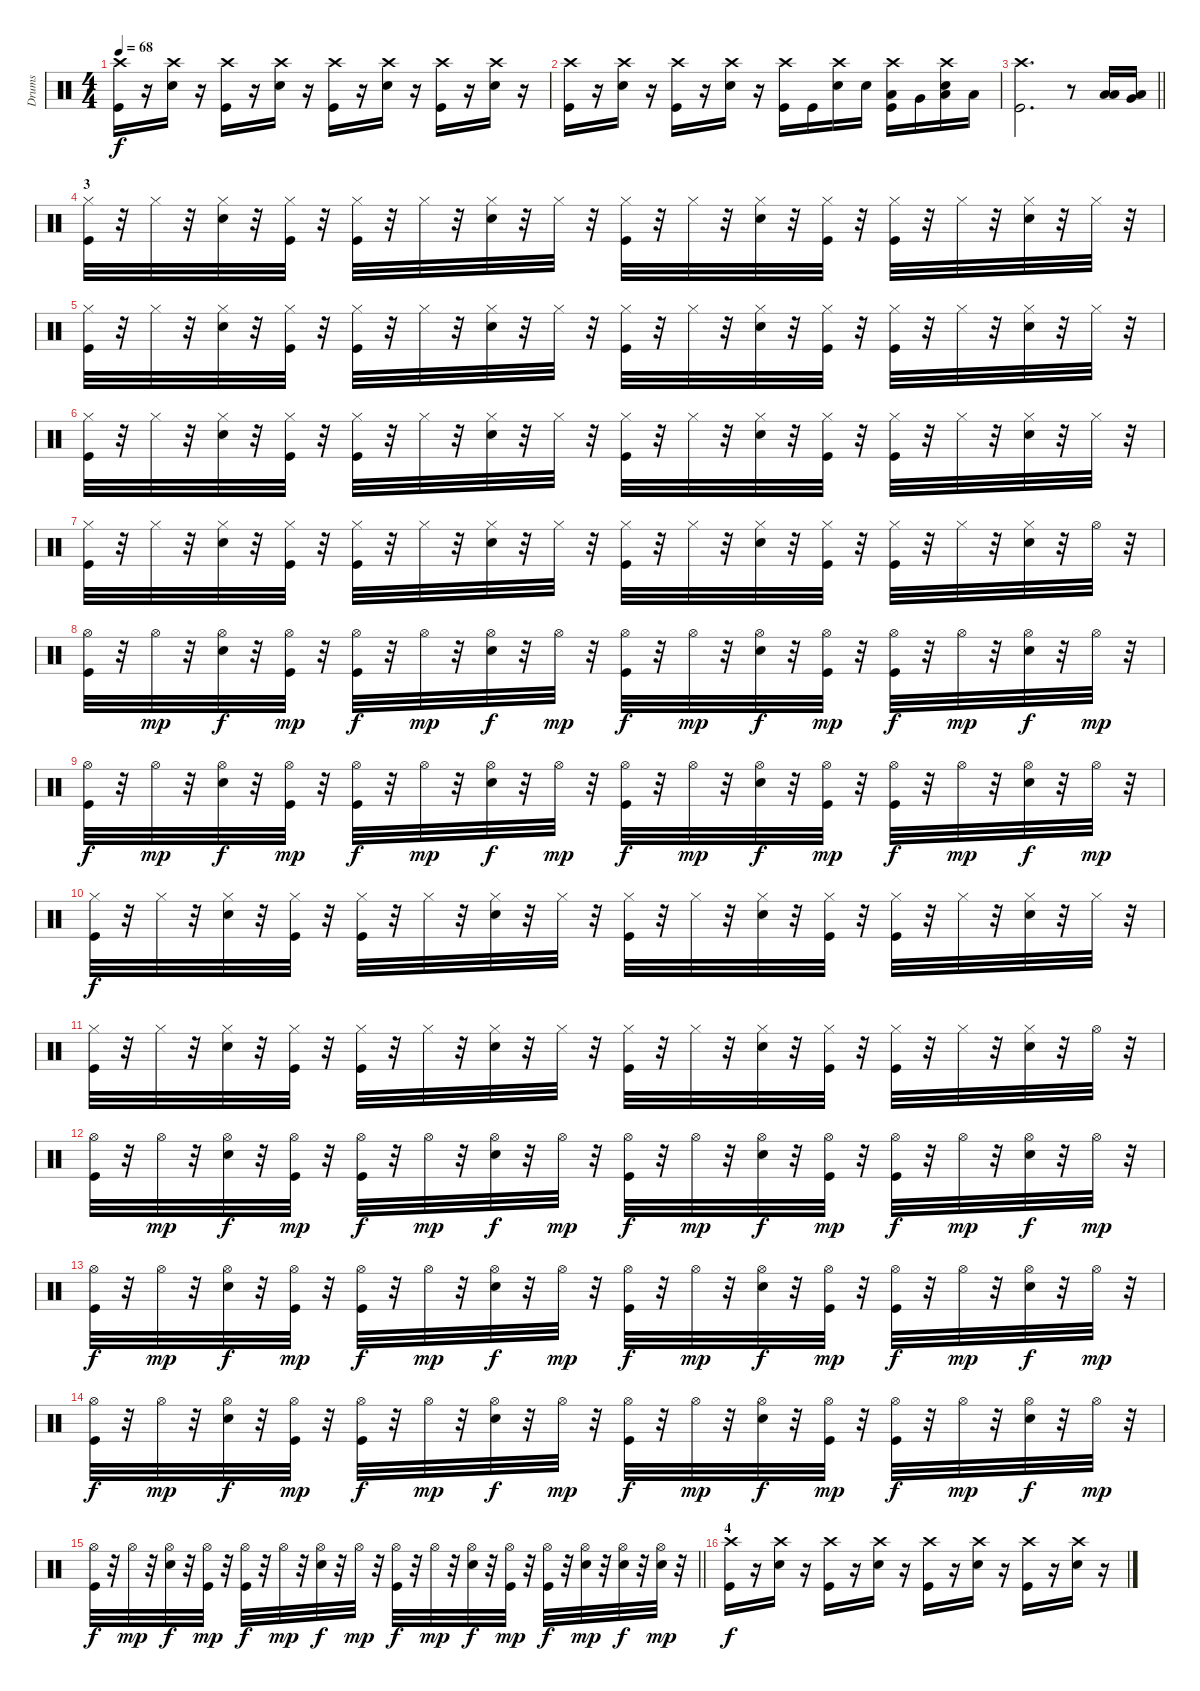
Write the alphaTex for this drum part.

\track ("Drums" "Drums") {instrument percussion}
\staff {score}
\articulation defaults
\ts (4 4)
\tempo 68
\clef neutral
\ks c
("Crash high (hit)" "Kick (hit)").16{dy f} r.16 ("Crash high (hit)" "Snare (hit) 2").16 r.16 ("Crash high (hit)" "Kick (hit)").16 r.16 ("Crash high (hit)" "Snare (hit) 2").16 r.16 ("Crash high (hit)" "Kick (hit)").16 r.16 ("Crash high (hit)" "Snare (hit) 2").16 r.16 ("Crash high (hit)" "Kick (hit)").16 r.16 ("Crash high (hit)" "Snare (hit) 2").16 r.16 |
("Crash high (hit)" "Kick (hit)").16 r.16 ("Crash high (hit)" "Snare (hit) 2").16 r.16 ("Crash high (hit)" "Kick (hit)").16 r.16 ("Crash high (hit)" "Snare (hit) 2").16 r.16 ("Crash high (hit)" "Kick (hit)").16 "Kick (hit)".16 ("Crash high (hit)" "Snare (hit) 2").16 "Snare (hit) 2".16 ("Crash high (hit)" "Low Tom (hit)" "Kick (hit)").16 "Very Low Tom (hit)".16 ("Crash high (hit)" "Low Floor Tom (hit)" "Snare (hit) 2").16 "Low Floor Tom (hit)".16 |
\barLineRight lightlight
("Crash high (hit)" "Kick (hit)").2{d} r.8 ("Low Floor Tom (hit)" "Low Tom (hit)").16 ("Low Floor Tom (hit)" "Very Low Tom (hit)").16 |
\section ("" "3")
("Hi-Hat (closed)" "Kick (hit)").32 r.32 "Hi-Hat (closed)".32 r.32 ("Hi-Hat (closed)" "Snare (hit) 2").32 r.32 ("Hi-Hat (closed)" "Kick (hit)").32 r.32 ("Hi-Hat (closed)" "Kick (hit)").32 r.32 "Hi-Hat (closed)".32 r.32 ("Hi-Hat (closed)" "Snare (hit) 2").32 r.32 "Hi-Hat (closed)".32 r.32 ("Hi-Hat (closed)" "Kick (hit)").32 r.32 "Hi-Hat (closed)".32 r.32 ("Hi-Hat (closed)" "Snare (hit) 2").32 r.32 ("Hi-Hat (closed)" "Kick (hit)").32 r.32 ("Hi-Hat (closed)" "Kick (hit)").32 r.32 "Hi-Hat (closed)".32 r.32 ("Hi-Hat (closed)" "Snare (hit) 2").32 r.32 "Hi-Hat (closed)".32 r.32 |
("Hi-Hat (closed)" "Kick (hit)").32 r.32 "Hi-Hat (closed)".32 r.32 ("Hi-Hat (closed)" "Snare (hit) 2").32 r.32 ("Hi-Hat (closed)" "Kick (hit)").32 r.32 ("Hi-Hat (closed)" "Kick (hit)").32 r.32 "Hi-Hat (closed)".32 r.32 ("Hi-Hat (closed)" "Snare (hit) 2").32 r.32 "Hi-Hat (closed)".32 r.32 ("Hi-Hat (closed)" "Kick (hit)").32 r.32 "Hi-Hat (closed)".32 r.32 ("Hi-Hat (closed)" "Snare (hit) 2").32 r.32 ("Hi-Hat (closed)" "Kick (hit)").32 r.32 ("Hi-Hat (closed)" "Kick (hit)").32 r.32 "Hi-Hat (closed)".32 r.32 ("Hi-Hat (closed)" "Snare (hit) 2").32 r.32 "Hi-Hat (closed)".32 r.32 |
("Hi-Hat (closed)" "Kick (hit)").32 r.32 "Hi-Hat (closed)".32 r.32 ("Hi-Hat (closed)" "Snare (hit) 2").32 r.32 ("Hi-Hat (closed)" "Kick (hit)").32 r.32 ("Hi-Hat (closed)" "Kick (hit)").32 r.32 "Hi-Hat (closed)".32 r.32 ("Hi-Hat (closed)" "Snare (hit) 2").32 r.32 "Hi-Hat (closed)".32 r.32 ("Hi-Hat (closed)" "Kick (hit)").32 r.32 "Hi-Hat (closed)".32 r.32 ("Hi-Hat (closed)" "Snare (hit) 2").32 r.32 ("Hi-Hat (closed)" "Kick (hit)").32 r.32 ("Hi-Hat (closed)" "Kick (hit)").32 r.32 "Hi-Hat (closed)".32 r.32 ("Hi-Hat (closed)" "Snare (hit) 2").32 r.32 "Hi-Hat (closed)".32 r.32 |
("Hi-Hat (closed)" "Kick (hit)").32 r.32 "Hi-Hat (closed)".32 r.32 ("Hi-Hat (closed)" "Snare (hit) 2").32 r.32 ("Hi-Hat (closed)" "Kick (hit)").32 r.32 ("Hi-Hat (closed)" "Kick (hit)").32 r.32 "Hi-Hat (closed)".32 r.32 ("Hi-Hat (closed)" "Snare (hit) 2").32 r.32 "Hi-Hat (closed)".32 r.32 ("Hi-Hat (closed)" "Kick (hit)").32 r.32 "Hi-Hat (closed)".32 r.32 ("Hi-Hat (closed)" "Snare (hit) 2").32 r.32 ("Hi-Hat (closed)" "Kick (hit)").32 r.32 ("Hi-Hat (closed)" "Kick (hit)").32 r.32 "Hi-Hat (closed)".32 r.32 ("Hi-Hat (closed)" "Snare (hit) 2").32 r.32 "Hi-Hat (open)".32 r.32 |
("Hi-Hat (open)" "Kick (hit)").32 r.32 "Hi-Hat (open)".32{dy mp} r.32 ("Hi-Hat (open)" "Snare (hit) 2").32{dy f} r.32 ("Hi-Hat (open)" "Kick (hit)").32{dy mp} r.32 ("Hi-Hat (open)" "Kick (hit)").32{dy f} r.32 "Hi-Hat (open)".32{dy mp} r.32 ("Hi-Hat (open)" "Snare (hit) 2").32{dy f} r.32 "Hi-Hat (open)".32{dy mp} r.32 ("Hi-Hat (open)" "Kick (hit)").32{dy f} r.32 "Hi-Hat (open)".32{dy mp} r.32 ("Hi-Hat (open)" "Snare (hit) 2").32{dy f} r.32 ("Hi-Hat (open)" "Kick (hit)").32{dy mp} r.32 ("Hi-Hat (open)" "Kick (hit)").32{dy f} r.32 "Hi-Hat (open)".32{dy mp} r.32 ("Hi-Hat (open)" "Snare (hit) 2").32{dy f} r.32 "Hi-Hat (open)".32{dy mp} r.32 |
("Hi-Hat (open)" "Kick (hit)").32{dy f} r.32 "Hi-Hat (open)".32{dy mp} r.32 ("Hi-Hat (open)" "Snare (hit) 2").32{dy f} r.32 ("Hi-Hat (open)" "Kick (hit)").32{dy mp} r.32 ("Hi-Hat (open)" "Kick (hit)").32{dy f} r.32 "Hi-Hat (open)".32{dy mp} r.32 ("Hi-Hat (open)" "Snare (hit) 2").32{dy f} r.32 "Hi-Hat (open)".32{dy mp} r.32 ("Hi-Hat (open)" "Kick (hit)").32{dy f} r.32 "Hi-Hat (open)".32{dy mp} r.32 ("Hi-Hat (open)" "Snare (hit) 2").32{dy f} r.32 ("Hi-Hat (open)" "Kick (hit)").32{dy mp} r.32 ("Hi-Hat (open)" "Kick (hit)").32{dy f} r.32 "Hi-Hat (open)".32{dy mp} r.32 ("Hi-Hat (open)" "Snare (hit) 2").32{dy f} r.32 "Hi-Hat (open)".32{dy mp} r.32 |
("Hi-Hat (closed)" "Kick (hit)").32{dy f} r.32 "Hi-Hat (closed)".32 r.32 ("Hi-Hat (closed)" "Snare (hit) 2").32 r.32 ("Hi-Hat (closed)" "Kick (hit)").32 r.32 ("Hi-Hat (closed)" "Kick (hit)").32 r.32 "Hi-Hat (closed)".32 r.32 ("Hi-Hat (closed)" "Snare (hit) 2").32 r.32 "Hi-Hat (closed)".32 r.32 ("Hi-Hat (closed)" "Kick (hit)").32 r.32 "Hi-Hat (closed)".32 r.32 ("Hi-Hat (closed)" "Snare (hit) 2").32 r.32 ("Hi-Hat (closed)" "Kick (hit)").32 r.32 ("Hi-Hat (closed)" "Kick (hit)").32 r.32 "Hi-Hat (closed)".32 r.32 ("Hi-Hat (closed)" "Snare (hit) 2").32 r.32 "Hi-Hat (closed)".32 r.32 |
("Hi-Hat (closed)" "Kick (hit)").32 r.32 "Hi-Hat (closed)".32 r.32 ("Hi-Hat (closed)" "Snare (hit) 2").32 r.32 ("Hi-Hat (closed)" "Kick (hit)").32 r.32 ("Hi-Hat (closed)" "Kick (hit)").32 r.32 "Hi-Hat (closed)".32 r.32 ("Hi-Hat (closed)" "Snare (hit) 2").32 r.32 "Hi-Hat (closed)".32 r.32 ("Hi-Hat (closed)" "Kick (hit)").32 r.32 "Hi-Hat (closed)".32 r.32 ("Hi-Hat (closed)" "Snare (hit) 2").32 r.32 ("Hi-Hat (closed)" "Kick (hit)").32 r.32 ("Hi-Hat (closed)" "Kick (hit)").32 r.32 "Hi-Hat (closed)".32 r.32 ("Hi-Hat (closed)" "Snare (hit) 2").32 r.32 "Hi-Hat (open)".32 r.32 |
("Hi-Hat (open)" "Kick (hit)").32 r.32 "Hi-Hat (open)".32{dy mp} r.32 ("Hi-Hat (open)" "Snare (hit) 2").32{dy f} r.32 ("Hi-Hat (open)" "Kick (hit)").32{dy mp} r.32 ("Hi-Hat (open)" "Kick (hit)").32{dy f} r.32 "Hi-Hat (open)".32{dy mp} r.32 ("Hi-Hat (open)" "Snare (hit) 2").32{dy f} r.32 "Hi-Hat (open)".32{dy mp} r.32 ("Hi-Hat (open)" "Kick (hit)").32{dy f} r.32 "Hi-Hat (open)".32{dy mp} r.32 ("Hi-Hat (open)" "Snare (hit) 2").32{dy f} r.32 ("Hi-Hat (open)" "Kick (hit)").32{dy mp} r.32 ("Hi-Hat (open)" "Kick (hit)").32{dy f} r.32 "Hi-Hat (open)".32{dy mp} r.32 ("Hi-Hat (open)" "Snare (hit) 2").32{dy f} r.32 "Hi-Hat (open)".32{dy mp} r.32 |
("Hi-Hat (open)" "Kick (hit)").32{dy f} r.32 "Hi-Hat (open)".32{dy mp} r.32 ("Hi-Hat (open)" "Snare (hit) 2").32{dy f} r.32 ("Hi-Hat (open)" "Kick (hit)").32{dy mp} r.32 ("Hi-Hat (open)" "Kick (hit)").32{dy f} r.32 "Hi-Hat (open)".32{dy mp} r.32 ("Hi-Hat (open)" "Snare (hit) 2").32{dy f} r.32 "Hi-Hat (open)".32{dy mp} r.32 ("Hi-Hat (open)" "Kick (hit)").32{dy f} r.32 "Hi-Hat (open)".32{dy mp} r.32 ("Hi-Hat (open)" "Snare (hit) 2").32{dy f} r.32 ("Hi-Hat (open)" "Kick (hit)").32{dy mp} r.32 ("Hi-Hat (open)" "Kick (hit)").32{dy f} r.32 "Hi-Hat (open)".32{dy mp} r.32 ("Hi-Hat (open)" "Snare (hit) 2").32{dy f} r.32 "Hi-Hat (open)".32{dy mp} r.32 |
("Hi-Hat (open)" "Kick (hit)").32{dy f} r.32 "Hi-Hat (open)".32{dy mp} r.32 ("Hi-Hat (open)" "Snare (hit) 2").32{dy f} r.32 ("Hi-Hat (open)" "Kick (hit)").32{dy mp} r.32 ("Hi-Hat (open)" "Kick (hit)").32{dy f} r.32 "Hi-Hat (open)".32{dy mp} r.32 ("Hi-Hat (open)" "Snare (hit) 2").32{dy f} r.32 "Hi-Hat (open)".32{dy mp} r.32 ("Hi-Hat (open)" "Kick (hit)").32{dy f} r.32 "Hi-Hat (open)".32{dy mp} r.32 ("Hi-Hat (open)" "Snare (hit) 2").32{dy f} r.32 ("Hi-Hat (open)" "Kick (hit)").32{dy mp} r.32 ("Hi-Hat (open)" "Kick (hit)").32{dy f} r.32 "Hi-Hat (open)".32{dy mp} r.32 ("Hi-Hat (open)" "Snare (hit) 2").32{dy f} r.32 "Hi-Hat (open)".32{dy mp} r.32 |
\barLineRight lightlight
("Hi-Hat (open)" "Kick (hit)").32{dy f} r.32 "Hi-Hat (open)".32{dy mp} r.32 ("Hi-Hat (open)" "Snare (hit) 2").32{dy f} r.32 ("Hi-Hat (open)" "Kick (hit)").32{dy mp} r.32 ("Hi-Hat (open)" "Kick (hit)").32{dy f} r.32 "Hi-Hat (open)".32{dy mp} r.32 ("Hi-Hat (open)" "Snare (hit) 2").32{dy f} r.32 "Hi-Hat (open)".32{dy mp} r.32 ("Hi-Hat (open)" "Kick (hit)").32{dy f} r.32 "Hi-Hat (open)".32{dy mp} r.32 ("Hi-Hat (open)" "Snare (hit) 2").32{dy f} r.32 ("Hi-Hat (open)" "Kick (hit)").32{dy mp} r.32 ("Hi-Hat (open)" "Kick (hit)").32{dy f} r.32 ("Hi-Hat (open)" "Snare (hit) 2").32{dy mp} r.32 ("Hi-Hat (open)" "Snare (hit) 2").32{dy f} r.32 ("Hi-Hat (open)" "Snare (hit) 2").32{dy mp} r.32 |
\section ("" "4")
("Crash high (hit)" "Kick (hit)").16{dy f} r.16 ("Crash high (hit)" "Snare (hit) 2").16 r.16 ("Crash high (hit)" "Kick (hit)").16 r.16 ("Crash high (hit)" "Snare (hit) 2").16 r.16 ("Crash high (hit)" "Kick (hit)").16 r.16 ("Crash high (hit)" "Snare (hit) 2").16 r.16 ("Crash high (hit)" "Kick (hit)").16 r.16 ("Crash high (hit)" "Snare (hit) 2").16 r.16
